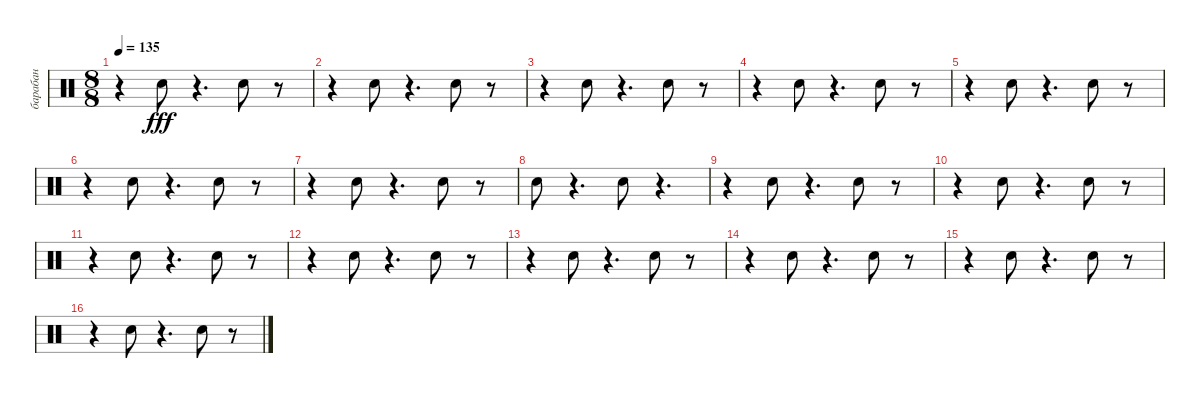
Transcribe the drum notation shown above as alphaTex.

\track ("барабан" "барабан") {instrument percussion}
\staff {score}
\articulation defaults
\ts (8 8)
\tempo 135
\clef neutral
\ks c
r.4{dy fff} "Snare (hit) 2".8 r.4{d} "Snare (hit) 2".8 r.8 |
r.4 "Snare (hit) 2".8 r.4{d} "Snare (hit) 2".8 r.8 |
r.4 "Snare (hit) 2".8 r.4{d} "Snare (hit) 2".8 r.8 |
r.4 "Snare (hit) 2".8 r.4{d} "Snare (hit) 2".8 r.8 |
r.4 "Snare (hit) 2".8 r.4{d} "Snare (hit) 2".8 r.8 |
r.4 "Snare (hit) 2".8 r.4{d} "Snare (hit) 2".8 r.8 |
r.4 "Snare (hit) 2".8 r.4{d} "Snare (hit) 2".8 r.8 |
"Snare (hit) 2".8 r.4{d} "Snare (hit) 2".8 r.4{d} |
r.4 "Snare (hit) 2".8 r.4{d} "Snare (hit) 2".8 r.8 |
r.4 "Snare (hit) 2".8 r.4{d} "Snare (hit) 2".8 r.8 |
r.4 "Snare (hit) 2".8 r.4{d} "Snare (hit) 2".8 r.8 |
r.4 "Snare (hit) 2".8 r.4{d} "Snare (hit) 2".8 r.8 |
r.4 "Snare (hit) 2".8 r.4{d} "Snare (hit) 2".8 r.8 |
r.4 "Snare (hit) 2".8 r.4{d} "Snare (hit) 2".8 r.8 |
r.4 "Snare (hit) 2".8 r.4{d} "Snare (hit) 2".8 r.8 |
r.4 "Snare (hit) 2".8 r.4{d} "Snare (hit) 2".8 r.8
